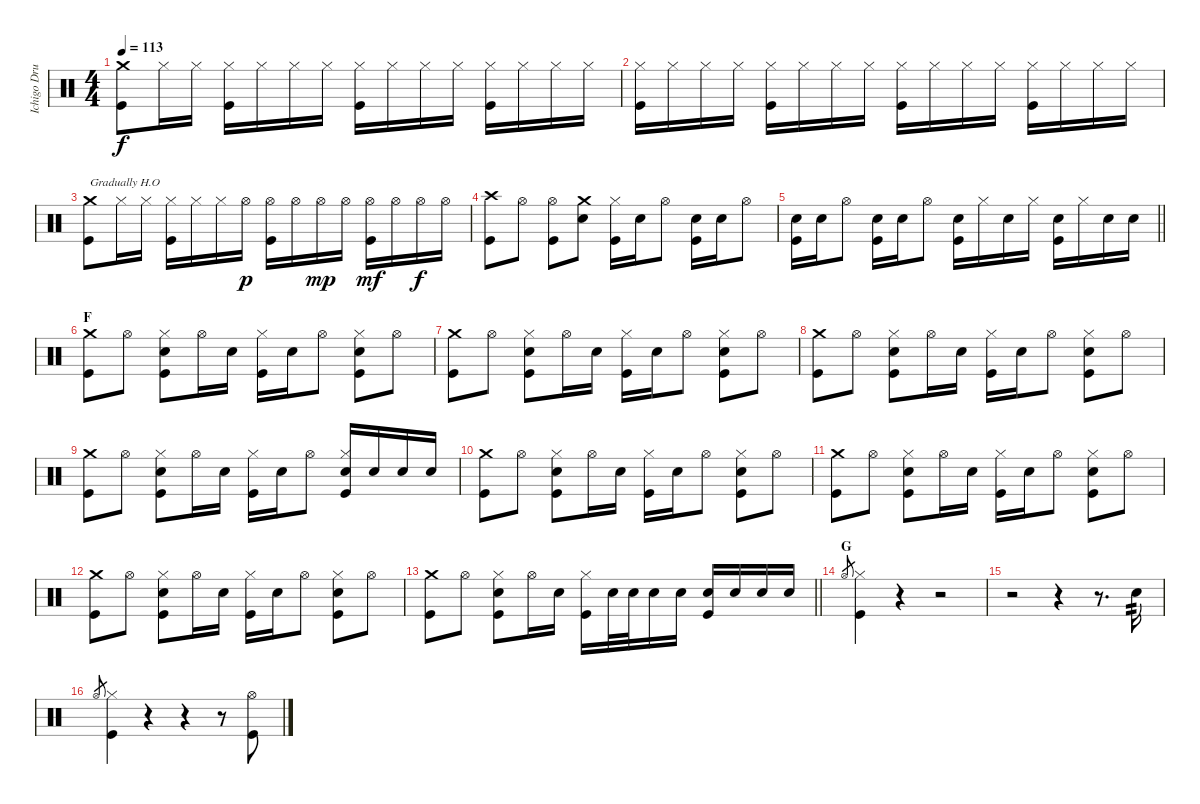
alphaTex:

\track ("Ichigo Drums" "Ichigo Dru") {instrument percussion}
\staff {score}
\articulation defaults
\ts (4 4)
\tempo 113
\clef neutral
\ks c
("Crash medium (hit)" "Kick (hit)").8{dy f} "Hi-Hat (closed)".16 "Hi-Hat (closed)".16 ("Hi-Hat (closed)" "Kick (hit)").16 "Hi-Hat (closed)".16 "Hi-Hat (closed)".16 "Hi-Hat (closed)".16 ("Hi-Hat (closed)" "Kick (hit)").16 "Hi-Hat (closed)".16 "Hi-Hat (closed)".16 "Hi-Hat (closed)".16 ("Hi-Hat (closed)" "Kick (hit)").16 "Hi-Hat (closed)".16 "Hi-Hat (closed)".16 "Hi-Hat (closed)".16 |
("Hi-Hat (closed)" "Kick (hit)").16 "Hi-Hat (closed)".16 "Hi-Hat (closed)".16 "Hi-Hat (closed)".16 ("Hi-Hat (closed)" "Kick (hit)").16 "Hi-Hat (closed)".16 "Hi-Hat (closed)".16 "Hi-Hat (closed)".16 ("Hi-Hat (closed)" "Kick (hit)").16 "Hi-Hat (closed)".16 "Hi-Hat (closed)".16 "Hi-Hat (closed)".16 ("Hi-Hat (closed)" "Kick (hit)").16 "Hi-Hat (closed)".16 "Hi-Hat (closed)".16 "Hi-Hat (closed)".16 |
("Crash medium (hit)" "Kick (hit)").8{txt "Gradually H.O"} "Hi-Hat (closed)".16 "Hi-Hat (closed)".16 ("Hi-Hat (closed)" "Kick (hit)").16 "Hi-Hat (closed)".16 "Hi-Hat (closed)".16 "Hi-Hat (open)".16{dy p} ("Hi-Hat (open)" "Kick (hit)").16 "Hi-Hat (open)".16 "Hi-Hat (open)".16{dy mp} "Hi-Hat (open)".16 ("Hi-Hat (open)" "Kick (hit)").16{dy mf} "Hi-Hat (open)".16 "Hi-Hat (open)".16{dy f} "Hi-Hat (open)".16 |
("Crash high (hit)" "Kick (hit)").8 "Hi-Hat (open)".8 ("Hi-Hat (open)" "Kick (hit)").8 ("Crash medium (hit)" "Snare (hit) 2").8 ("Hi-Hat (closed)" "Kick (hit)").16 "Snare (hit) 2".16 "Hi-Hat (open)".8 ("Snare (hit) 2" "Kick (hit)").16 "Snare (hit) 2".16 "Hi-Hat (open)".8 |
\barLineRight lightlight
("Snare (hit) 2" "Kick (hit)").16 "Snare (hit) 2".16 "Hi-Hat (open)".8 ("Snare (hit) 2" "Kick (hit)").16 "Snare (hit) 2".16 "Hi-Hat (open)".8 ("Snare (hit) 2" "Kick (hit)").16 "Hi-Hat (closed)".16 "Snare (hit) 2".16 "Hi-Hat (closed)".16 ("Snare (hit) 2" "Kick (hit)").16 "Hi-Hat (closed)".16 "Snare (hit) 2".16 "Snare (hit) 2".16 |
\section ("" "F")
("Crash medium (hit)" "Kick (hit)").8 "Hi-Hat (open)".8 ("Hi-Hat (closed)" "Snare (hit) 2" "Kick (hit)").8 "Hi-Hat (open)".16 "Snare (hit) 2".16 ("Hi-Hat (closed)" "Kick (hit)").16 "Snare (hit) 2".16 "Hi-Hat (open)".8 ("Hi-Hat (closed)" "Snare (hit) 2" "Kick (hit)").8 "Hi-Hat (open)".8 |
("Crash medium (hit)" "Kick (hit)").8 "Hi-Hat (open)".8 ("Hi-Hat (closed)" "Snare (hit) 2" "Kick (hit)").8 "Hi-Hat (open)".16 "Snare (hit) 2".16 ("Hi-Hat (closed)" "Kick (hit)").16 "Snare (hit) 2".16 "Hi-Hat (open)".8 ("Hi-Hat (closed)" "Snare (hit) 2" "Kick (hit)").8 "Hi-Hat (open)".8 |
("Crash medium (hit)" "Kick (hit)").8 "Hi-Hat (open)".8 ("Hi-Hat (closed)" "Snare (hit) 2" "Kick (hit)").8 "Hi-Hat (open)".16 "Snare (hit) 2".16 ("Hi-Hat (closed)" "Kick (hit)").16 "Snare (hit) 2".16 "Hi-Hat (open)".8 ("Hi-Hat (closed)" "Snare (hit) 2" "Kick (hit)").8 "Hi-Hat (open)".8 |
("Crash medium (hit)" "Kick (hit)").8 "Hi-Hat (open)".8 ("Hi-Hat (closed)" "Snare (hit) 2" "Kick (hit)").8 "Hi-Hat (open)".16 "Snare (hit) 2".16 ("Hi-Hat (closed)" "Kick (hit)").16 "Snare (hit) 2".16 "Hi-Hat (open)".8 ("Hi-Hat (closed)" "Snare (hit) 2" "Kick (hit)").16 "Snare (hit) 2".16 "Snare (hit) 2".16 "Snare (hit) 2".16 |
("Crash medium (hit)" "Kick (hit)").8 "Hi-Hat (open)".8 ("Hi-Hat (closed)" "Snare (hit) 2" "Kick (hit)").8 "Hi-Hat (open)".16 "Snare (hit) 2".16 ("Hi-Hat (closed)" "Kick (hit)").16 "Snare (hit) 2".16 "Hi-Hat (open)".8 ("Hi-Hat (closed)" "Snare (hit) 2" "Kick (hit)").8 "Hi-Hat (open)".8 |
("Crash medium (hit)" "Kick (hit)").8 "Hi-Hat (open)".8 ("Hi-Hat (closed)" "Snare (hit) 2" "Kick (hit)").8 "Hi-Hat (open)".16 "Snare (hit) 2".16 ("Hi-Hat (closed)" "Kick (hit)").16 "Snare (hit) 2".16 "Hi-Hat (open)".8 ("Hi-Hat (closed)" "Snare (hit) 2" "Kick (hit)").8 "Hi-Hat (open)".8 |
("Crash medium (hit)" "Kick (hit)").8 "Hi-Hat (open)".8 ("Hi-Hat (closed)" "Snare (hit) 2" "Kick (hit)").8 "Hi-Hat (open)".16 "Snare (hit) 2".16 ("Hi-Hat (closed)" "Kick (hit)").16 "Snare (hit) 2".16 "Hi-Hat (open)".8 ("Hi-Hat (closed)" "Snare (hit) 2" "Kick (hit)").8 "Hi-Hat (open)".8 |
\barLineRight lightlight
("Crash medium (hit)" "Kick (hit)").8 "Hi-Hat (open)".8 ("Hi-Hat (closed)" "Snare (hit) 2" "Kick (hit)").8 "Hi-Hat (open)".16 "Snare (hit) 2".16 ("Hi-Hat (closed)" "Kick (hit)").16 "Snare (hit) 2".32 "Snare (hit) 2".32 "Snare (hit) 2".16 "Snare (hit) 2".16 ("Snare (hit) 2" "Kick (hit)").16 "Snare (hit) 2".16 "Snare (hit) 2".16 "Snare (hit) 2".16 |
\section ("" "G")
"Hi-Hat (open)".8{gr} ("Hi-Hat (closed)" "Kick (hit)").4 r.4 r.2 |
r.2 r.4 r.8{d} "Snare (hit) 2".16{tp 2} |
"Hi-Hat (open)".8{gr} ("Hi-Hat (closed)" "Kick (hit)").4 r.4 r.4 r.8 ("Hi-Hat (open)" "Kick (hit)").8
